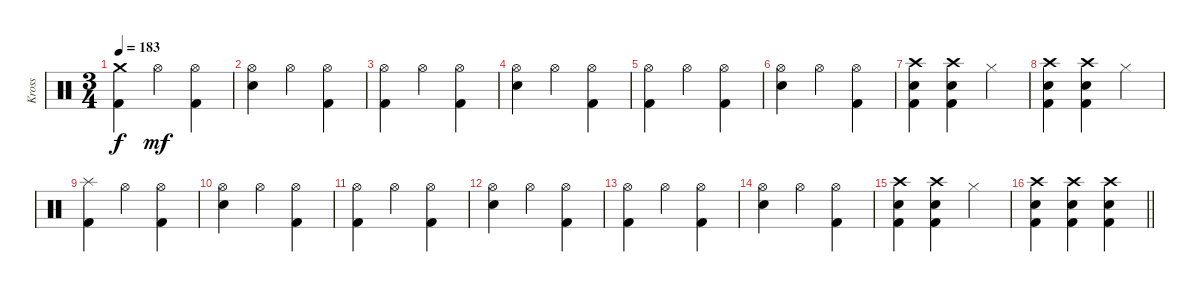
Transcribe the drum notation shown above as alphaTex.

\track ("Kross" "Kross") {instrument percussion}
\staff {score}
\articulation defaults
\ts (3 4)
\tempo 183
\clef neutral
\ks c
("Crash medium (hit)" "Kick (hit) 2").4{dy f} "Hi-Hat (open)".4{dy mf} ("Hi-Hat (open)" "Kick (hit) 2").4 |
("Hi-Hat (open)" "Electric Snare (hit)").4 "Hi-Hat (open)".4 ("Hi-Hat (open)" "Kick (hit) 2").4 |
("Hi-Hat (open)" "Kick (hit) 2").4 "Hi-Hat (open)".4 ("Hi-Hat (open)" "Kick (hit) 2").4 |
("Hi-Hat (open)" "Electric Snare (hit)").4 "Hi-Hat (open)".4 ("Hi-Hat (open)" "Kick (hit) 2").4 |
("Hi-Hat (open)" "Kick (hit) 2").4 "Hi-Hat (open)".4 ("Hi-Hat (open)" "Kick (hit) 2").4 |
("Hi-Hat (open)" "Electric Snare (hit)").4 "Hi-Hat (open)".4 ("Hi-Hat (open)" "Kick (hit) 2").4 |
("Crash high (hit)" "Electric Snare (hit)" "Kick (hit) 2").4 ("Crash high (hit)" "Electric Snare (hit)" "Kick (hit) 2").4 "Hi-Hat (closed)".4 |
("Crash high (hit)" "Electric Snare (hit)" "Kick (hit) 2").4 ("Crash high (hit)" "Electric Snare (hit)" "Kick (hit) 2").4 "Hi-Hat (closed)".4 |
("Splash (hit)" "Kick (hit) 2").4 "Hi-Hat (open)".4 ("Hi-Hat (open)" "Kick (hit) 2").4 |
("Hi-Hat (open)" "Electric Snare (hit)").4 "Hi-Hat (open)".4 ("Hi-Hat (open)" "Kick (hit) 2").4 |
("Hi-Hat (open)" "Kick (hit) 2").4 "Hi-Hat (open)".4 ("Hi-Hat (open)" "Kick (hit) 2").4 |
("Hi-Hat (open)" "Electric Snare (hit)").4 "Hi-Hat (open)".4 ("Hi-Hat (open)" "Kick (hit) 2").4 |
("Hi-Hat (open)" "Kick (hit) 2").4 "Hi-Hat (open)".4 ("Hi-Hat (open)" "Kick (hit) 2").4 |
("Hi-Hat (open)" "Electric Snare (hit)").4 "Hi-Hat (open)".4 ("Hi-Hat (open)" "Kick (hit) 2").4 |
("Crash high (hit)" "Electric Snare (hit)" "Kick (hit) 2").4 ("Crash high (hit)" "Electric Snare (hit)" "Kick (hit) 2").4 "Hi-Hat (closed)".4 |
\barLineRight lightlight
("Crash high (hit)" "Electric Snare (hit)" "Kick (hit) 2").4 ("Crash high (hit)" "Electric Snare (hit)" "Kick (hit) 2").4 ("Crash high (hit)" "Electric Snare (hit)" "Kick (hit) 2").4
